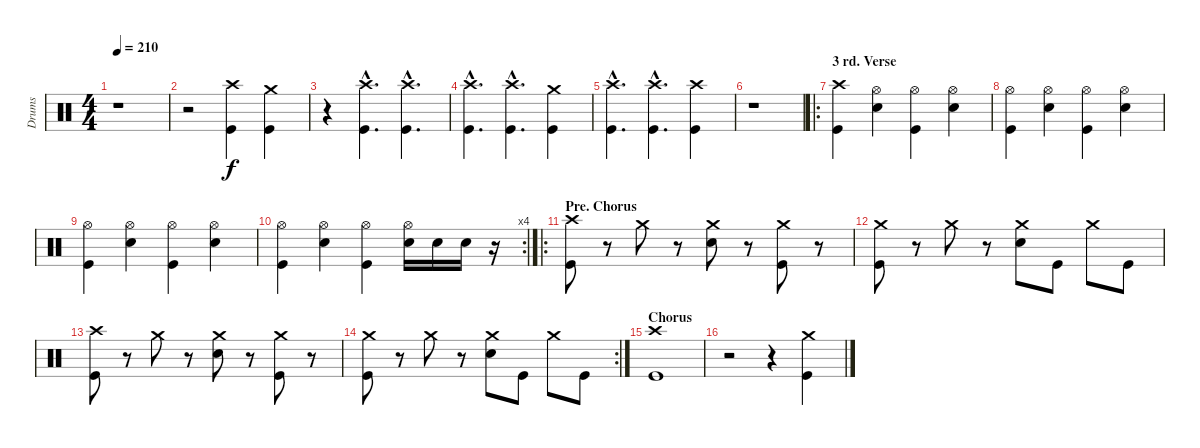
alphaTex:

\track ("Drums" "Drums") {instrument percussion}
\staff {score}
\articulation defaults
\ts (4 4)
\tempo 210
\clef neutral
\ks c
r.1{dy f} |
r.2 ("Crash high (hit)" "Kick (hit)").4 ("Crash medium (hit)" "Kick (hit)").4 |
r.4 ("Crash high (hit)"{hac} "Kick (hit)"{hac}).4{d} ("Crash high (hit)"{hac} "Kick (hit)"{hac}).4{d} |
("Crash high (hit)"{hac} "Kick (hit)"{hac}).4{d} ("Crash high (hit)"{hac} "Kick (hit)"{hac}).4{d} ("Crash medium (hit)" "Kick (hit)").4 |
("Crash high (hit)"{hac} "Kick (hit)"{hac}).4{d} ("Crash high (hit)"{hac} "Kick (hit)"{hac}).4{d} ("Crash high (hit)" "Kick (hit)").4 |
r.1 |
\ro
\section ("" "3 rd. Verse")
("Crash high (hit)" "Kick (hit)").4 ("Hi-Hat (open)" "Snare (hit) 2").4 ("Hi-Hat (open)" "Kick (hit)").4 ("Hi-Hat (open)" "Snare (hit) 2").4 |
("Hi-Hat (open)" "Kick (hit)").4 ("Hi-Hat (open)" "Snare (hit) 2").4 ("Hi-Hat (open)" "Kick (hit)").4 ("Hi-Hat (open)" "Snare (hit) 2").4 |
("Hi-Hat (open)" "Kick (hit)").4 ("Hi-Hat (open)" "Snare (hit) 2").4 ("Hi-Hat (open)" "Kick (hit)").4 ("Hi-Hat (open)" "Snare (hit) 2").4 |
\rc 4
("Hi-Hat (open)" "Kick (hit)").4 ("Hi-Hat (open)" "Snare (hit) 2").4 ("Hi-Hat (open)" "Kick (hit)").4 ("Hi-Hat (open)" "Snare (hit) 2").16 "Snare (hit) 2".16 "Snare (hit) 2".16 r.16 |
\ro
\section ("" "Pre. Chorus")
("Crash high (hit)" "Kick (hit)").8 r.8 "Crash medium (hit)".8 r.8 ("Crash medium (hit)" "Snare (hit) 2").8 r.8 ("Crash medium (hit)" "Kick (hit)").8 r.8 |
("Crash medium (hit)" "Kick (hit)").8 r.8 "Crash medium (hit)".8 r.8 ("Crash medium (hit)" "Snare (hit) 2").8 "Kick (hit)".8 "Crash medium (hit)".8 "Kick (hit)".8 |
("Crash high (hit)" "Kick (hit)").8 r.8 "Crash medium (hit)".8 r.8 ("Crash medium (hit)" "Snare (hit) 2").8 r.8 ("Crash medium (hit)" "Kick (hit)").8 r.8 |
\rc 2
("Crash medium (hit)" "Kick (hit)").8 r.8 "Crash medium (hit)".8 r.8 ("Crash medium (hit)" "Snare (hit) 2").8 "Kick (hit)".8 "Crash medium (hit)".8 "Kick (hit)".8 |
\section ("" "Chorus")
("Crash high (hit)" "Kick (hit)").1 |
r.2 r.4 ("Crash medium (hit)" "Kick (hit)").4
